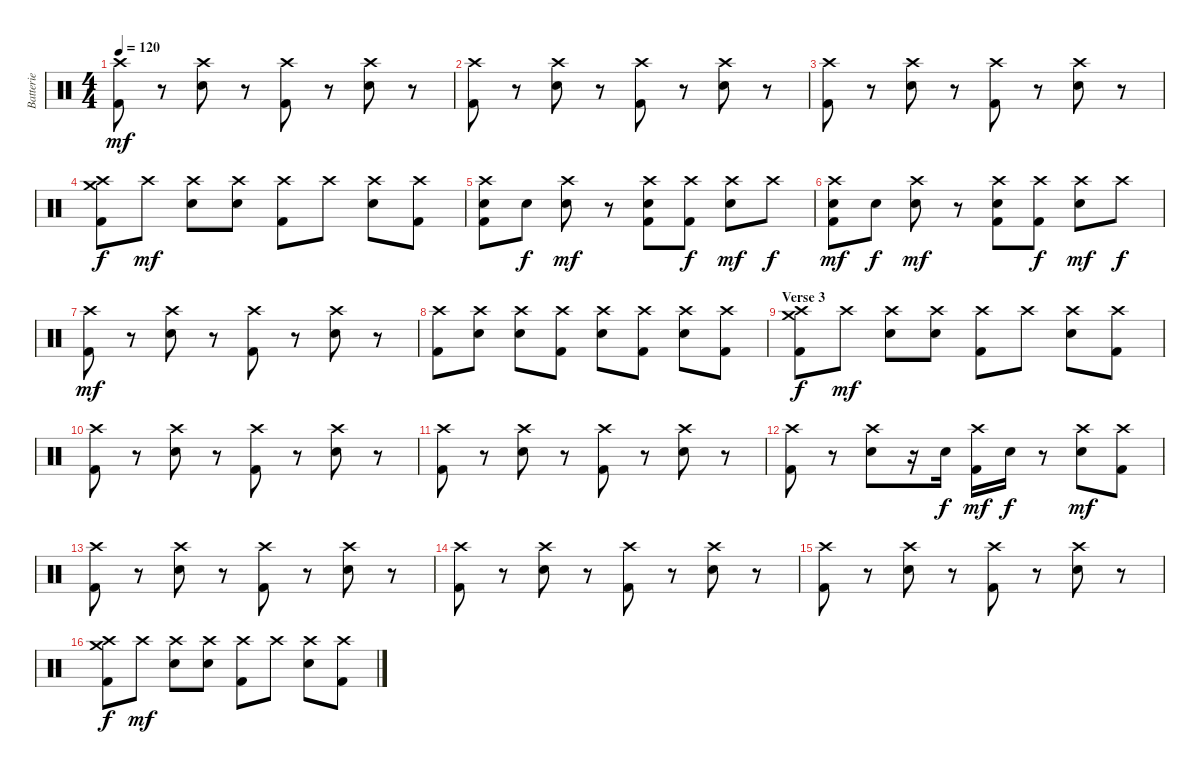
\track ("Batterie" "Batterie") {instrument percussion}
\staff {score}
\articulation defaults
\ts (4 4)
\tempo 120
\clef neutral
\ks c
("Crash high (hit)" "Kick (hit) 2").8{dy mf} r.8 ("Crash high (hit)" "Electric Snare (hit)").8 r.8 ("Crash high (hit)" "Kick (hit) 2").8 r.8 ("Crash high (hit)" "Electric Snare (hit)").8 r.8 |
("Crash high (hit)" "Kick (hit) 2").8 r.8 ("Crash high (hit)" "Electric Snare (hit)").8 r.8 ("Crash high (hit)" "Kick (hit) 2").8 r.8 ("Crash high (hit)" "Electric Snare (hit)").8 r.8 |
("Crash high (hit)" "Kick (hit) 2").8 r.8 ("Crash high (hit)" "Electric Snare (hit)").8 r.8 ("Crash high (hit)" "Kick (hit) 2").8 r.8 ("Crash high (hit)" "Electric Snare (hit)").8 r.8 |
("Crash high (hit)" "Crash medium (hit)" "Kick (hit) 2").8{dy f} "Crash high (hit)".8{dy mf} ("Crash high (hit)" "Electric Snare (hit)").8 ("Crash high (hit)" "Electric Snare (hit)").8 ("Crash high (hit)" "Kick (hit) 2").8 "Crash high (hit)".8 ("Crash high (hit)" "Electric Snare (hit)").8 ("Crash high (hit)" "Kick (hit) 2").8 |
("Crash high (hit)" "Electric Snare (hit)" "Kick (hit) 2").8 "Electric Snare (hit)".8{dy f} ("Crash high (hit)" "Electric Snare (hit)").8{dy mf} r.8 ("Crash high (hit)" "Electric Snare (hit)" "Kick (hit) 2").8 ("Crash high (hit)" "Kick (hit) 2").8{dy f} ("Crash high (hit)" "Electric Snare (hit)").8{dy mf} "Crash high (hit)".8{dy f} |
("Crash high (hit)" "Electric Snare (hit)" "Kick (hit) 2").8{dy mf} "Electric Snare (hit)".8{dy f} ("Crash high (hit)" "Electric Snare (hit)").8{dy mf} r.8 ("Crash high (hit)" "Electric Snare (hit)" "Kick (hit) 2").8 ("Crash high (hit)" "Kick (hit) 2").8{dy f} ("Crash high (hit)" "Electric Snare (hit)").8{dy mf} "Crash high (hit)".8{dy f} |
("Crash high (hit)" "Kick (hit) 2").8{dy mf} r.8 ("Crash high (hit)" "Electric Snare (hit)").8 r.8 ("Crash high (hit)" "Kick (hit) 2").8 r.8 ("Crash high (hit)" "Electric Snare (hit)").8 r.8 |
("Crash high (hit)" "Kick (hit) 2").8 ("Crash high (hit)" "Electric Snare (hit)").8 ("Crash high (hit)" "Electric Snare (hit)").8 ("Crash high (hit)" "Kick (hit) 2").8 ("Crash high (hit)" "Electric Snare (hit)").8 ("Crash high (hit)" "Kick (hit) 2").8 ("Crash high (hit)" "Electric Snare (hit)").8 ("Crash high (hit)" "Kick (hit) 2").8 |
\section ("" "Verse 3")
("Crash high (hit)" "Crash medium (hit)" "Kick (hit) 2").8{dy f} "Crash high (hit)".8{dy mf} ("Crash high (hit)" "Electric Snare (hit)").8 ("Crash high (hit)" "Electric Snare (hit)").8 ("Crash high (hit)" "Kick (hit) 2").8 "Crash high (hit)".8 ("Crash high (hit)" "Electric Snare (hit)").8 ("Crash high (hit)" "Kick (hit) 2").8 |
("Crash high (hit)" "Kick (hit) 2").8 r.8 ("Crash high (hit)" "Electric Snare (hit)").8 r.8 ("Crash high (hit)" "Kick (hit) 2").8 r.8 ("Crash high (hit)" "Electric Snare (hit)").8 r.8 |
("Crash high (hit)" "Kick (hit) 2").8 r.8 ("Crash high (hit)" "Electric Snare (hit)").8 r.8 ("Crash high (hit)" "Kick (hit) 2").8 r.8 ("Crash high (hit)" "Electric Snare (hit)").8 r.8 |
("Crash high (hit)" "Kick (hit) 2").8 r.8 ("Crash high (hit)" "Electric Snare (hit)").8 r.16 "Electric Snare (hit)".16{dy f} ("Crash high (hit)" "Kick (hit) 2").16{dy mf} "Electric Snare (hit)".16{dy f} r.8 ("Crash high (hit)" "Electric Snare (hit)").8{dy mf} ("Crash high (hit)" "Kick (hit) 2").8 |
("Crash high (hit)" "Kick (hit) 2").8 r.8 ("Crash high (hit)" "Electric Snare (hit)").8 r.8 ("Crash high (hit)" "Kick (hit) 2").8 r.8 ("Crash high (hit)" "Electric Snare (hit)").8 r.8 |
("Crash high (hit)" "Kick (hit) 2").8 r.8 ("Crash high (hit)" "Electric Snare (hit)").8 r.8 ("Crash high (hit)" "Kick (hit) 2").8 r.8 ("Crash high (hit)" "Electric Snare (hit)").8 r.8 |
("Crash high (hit)" "Kick (hit) 2").8 r.8 ("Crash high (hit)" "Electric Snare (hit)").8 r.8 ("Crash high (hit)" "Kick (hit) 2").8 r.8 ("Crash high (hit)" "Electric Snare (hit)").8 r.8 |
("Crash high (hit)" "Crash medium (hit)" "Kick (hit) 2").8{dy f} "Crash high (hit)".8{dy mf} ("Crash high (hit)" "Electric Snare (hit)").8 ("Crash high (hit)" "Electric Snare (hit)").8 ("Crash high (hit)" "Kick (hit) 2").8 "Crash high (hit)".8 ("Crash high (hit)" "Electric Snare (hit)").8 ("Crash high (hit)" "Kick (hit) 2").8
